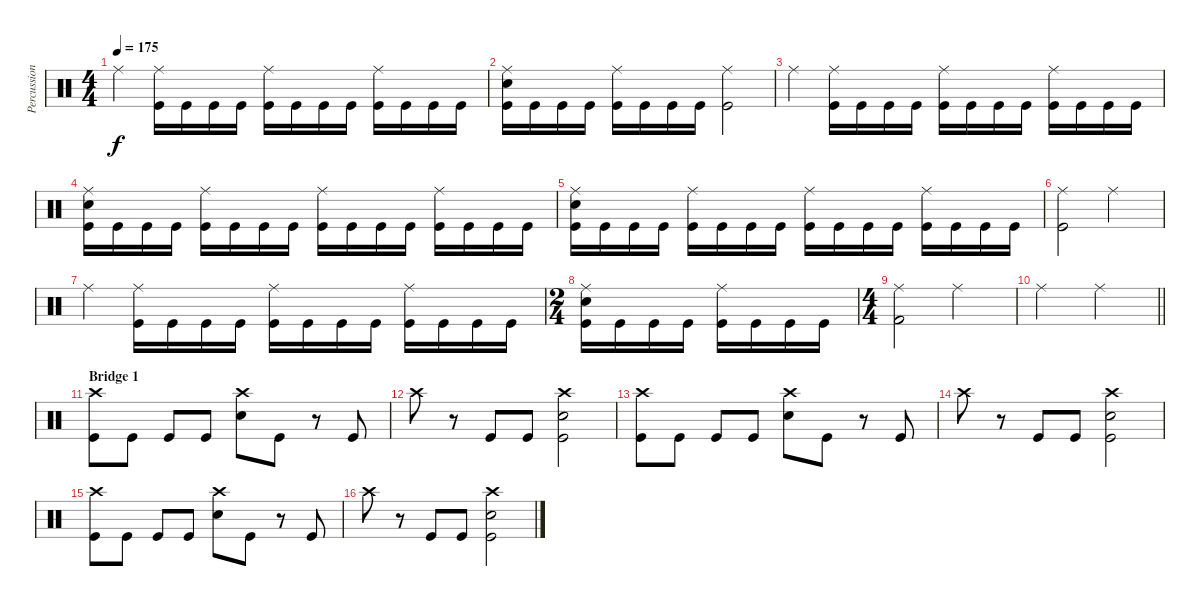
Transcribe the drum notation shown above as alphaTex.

\track ("Percussion" "Percussion") {instrument percussion}
\staff {score}
\articulation defaults
\ts (4 4)
\tempo 175
\clef neutral
\ks c "Ride (middle)".4{dy f}
("Ride (middle)" "Kick (hit)").16 "Kick (hit)".16 "Kick (hit)".16 "Kick (hit)".16 ("Ride (middle)" "Kick (hit)").16 "Kick (hit)".16 "Kick (hit)".16 "Kick (hit)".16 ("Ride (middle)" "Kick (hit)").16 "Kick (hit)".16 "Kick (hit)".16 "Kick (hit)".16 |
("Ride (middle)" "Electric Snare (hit)" "Kick (hit)").16 "Kick (hit)".16 "Kick (hit)".16 "Kick (hit)".16 ("Ride (middle)" "Kick (hit)").16 "Kick (hit)".16 "Kick (hit)".16 "Kick (hit)".16 ("Ride (middle)" "Kick (hit)").2 |
"Ride (middle)".4 ("Ride (middle)" "Kick (hit)").16 "Kick (hit)".16 "Kick (hit)".16 "Kick (hit)".16 ("Ride (middle)" "Kick (hit)").16 "Kick (hit)".16 "Kick (hit)".16 "Kick (hit)".16 ("Ride (middle)" "Kick (hit)").16 "Kick (hit)".16 "Kick (hit)".16 "Kick (hit)".16 |
("Ride (middle)" "Electric Snare (hit)" "Kick (hit)").16 "Kick (hit)".16 "Kick (hit)".16 "Kick (hit)".16 ("Ride (middle)" "Kick (hit)").16 "Kick (hit)".16 "Kick (hit)".16 "Kick (hit)".16 ("Ride (middle)" "Kick (hit)").16 "Kick (hit)".16 "Kick (hit)".16 "Kick (hit)".16 ("Ride (middle)" "Kick (hit)").16 "Kick (hit)".16 "Kick (hit)".16 "Kick (hit)".16 |
("Ride (middle)" "Electric Snare (hit)" "Kick (hit)").16 "Kick (hit)".16 "Kick (hit)".16 "Kick (hit)".16 ("Ride (middle)" "Kick (hit)").16 "Kick (hit)".16 "Kick (hit)".16 "Kick (hit)".16 ("Ride (middle)" "Kick (hit)").16 "Kick (hit)".16 "Kick (hit)".16 "Kick (hit)".16 ("Ride (middle)" "Kick (hit)").16 "Kick (hit)".16 "Kick (hit)".16 "Kick (hit)".16 |
("Ride (middle)" "Kick (hit)").2 "Ride (middle)".2 |
"Ride (middle)".4 ("Ride (middle)" "Kick (hit)").16 "Kick (hit)".16 "Kick (hit)".16 "Kick (hit)".16 ("Ride (middle)" "Kick (hit)").16 "Kick (hit)".16 "Kick (hit)".16 "Kick (hit)".16 ("Ride (middle)" "Kick (hit)").16 "Kick (hit)".16 "Kick (hit)".16 "Kick (hit)".16 |
\ts (2 4)
("Ride (middle)" "Electric Snare (hit)" "Kick (hit)").16 "Kick (hit)".16 "Kick (hit)".16 "Kick (hit)".16 ("Ride (middle)" "Kick (hit)").16 "Kick (hit)".16 "Kick (hit)".16 "Kick (hit)".16 |
\ts (4 4)
("Ride (middle)" "Kick (hit) 2").2 "Ride (middle)".2 |
\barLineRight lightlight "Ride (middle)".2 "Ride (middle)".2
|
\section ("" "Bridge 1")
("Crash high (hit)" "Kick (hit)").8 "Kick (hit)".8 "Kick (hit)".8 "Kick (hit)".8 ("Crash high (hit)" "Electric Snare (hit)").8 "Kick (hit)".8 r.8 "Kick (hit)".8 |
"Crash high (hit)".8 r.8 "Kick (hit)".8 "Kick (hit)".8 ("Crash high (hit)" "Electric Snare (hit)" "Kick (hit)").2 |
("Crash high (hit)" "Kick (hit)").8 "Kick (hit)".8 "Kick (hit)".8 "Kick (hit)".8 ("Crash high (hit)" "Electric Snare (hit)").8 "Kick (hit)".8 r.8 "Kick (hit)".8 |
"Crash high (hit)".8 r.8 "Kick (hit)".8 "Kick (hit)".8 ("Crash high (hit)" "Electric Snare (hit)" "Kick (hit)").2 |
("Crash high (hit)" "Kick (hit)").8 "Kick (hit)".8 "Kick (hit)".8 "Kick (hit)".8 ("Crash high (hit)" "Electric Snare (hit)").8 "Kick (hit)".8 r.8 "Kick (hit)".8 |
"Crash high (hit)".8 r.8 "Kick (hit)".8 "Kick (hit)".8 ("Crash high (hit)" "Electric Snare (hit)" "Kick (hit)").2
